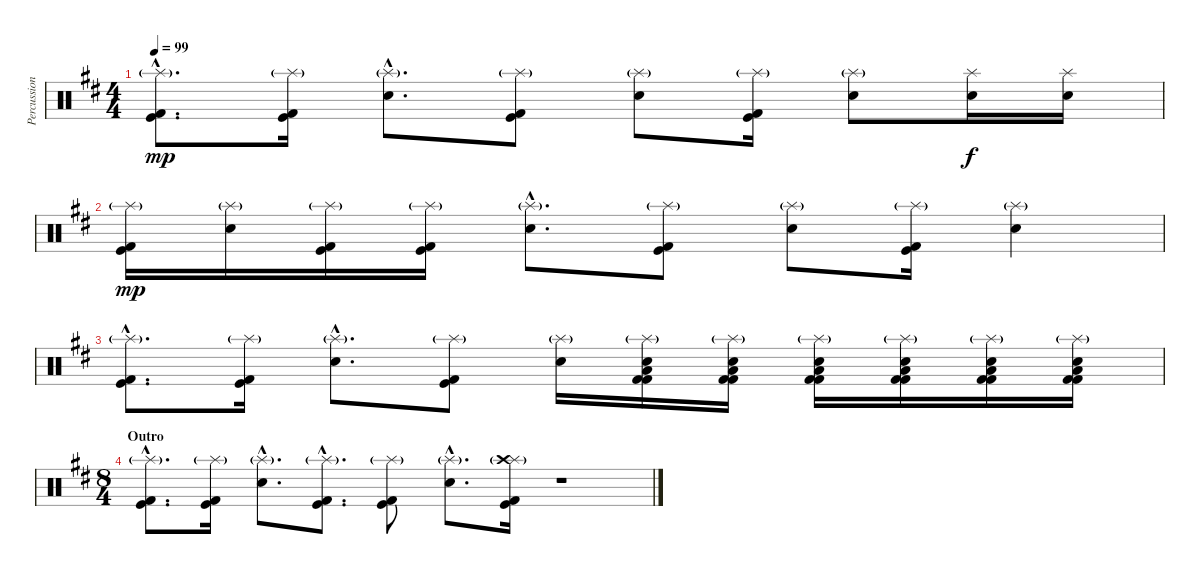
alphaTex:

\track ("Percussion" "Percussion") {instrument percussion}
\staff {score}
\articulation defaults
\ts (4 4)
\tempo 99
\clef neutral
\ks d
("Splash (hit)"{g hac} "Kick (hit)"{hac} "Kick (hit) 2"{hac}).8{d dy mp} ("Splash (hit)"{g} "Kick (hit)" "Kick (hit) 2").16 ("Splash (hit)"{g hac} "Electric Snare (hit)"{hac}).8{d} ("Splash (hit)"{g} "Kick (hit)" "Kick (hit) 2").8 ("Splash (hit)"{g} "Electric Snare (hit)").8 ("Splash (hit)"{g} "Kick (hit)" "Kick (hit) 2").16 ("Splash (hit)"{g} "Electric Snare (hit)").8 ("Splash (hit)" "Electric Snare (hit)").16{dy f} ("Splash (hit)" "Electric Snare (hit)").16 |
("Splash (hit)"{g} "Kick (hit)" "Kick (hit) 2").16{dy mp} ("Splash (hit)"{g} "Electric Snare (hit)").16 ("Splash (hit)"{g} "Kick (hit)" "Kick (hit) 2").16 ("Splash (hit)"{g} "Kick (hit)" "Kick (hit) 2").16 ("Splash (hit)"{g hac} "Electric Snare (hit)"{hac}).8{d} ("Splash (hit)"{g} "Kick (hit)" "Kick (hit) 2").8 ("Splash (hit)"{g} "Electric Snare (hit)").8 ("Splash (hit)"{g} "Kick (hit)" "Kick (hit) 2").16 ("Splash (hit)"{g} "Electric Snare (hit)").4 |
("Splash (hit)"{g hac} "Kick (hit)"{hac} "Kick (hit) 2"{hac}).8{d} ("Splash (hit)"{g} "Kick (hit)" "Kick (hit) 2").16 ("Splash (hit)"{g hac} "Electric Snare (hit)"{hac}).8{d} ("Splash (hit)"{g} "Kick (hit)" "Kick (hit) 2").8 ("Splash (hit)"{g} "Electric Snare (hit)").16 ("Splash (hit)"{g} "Electric Snare (hit)" "Kick (hit) 2" "Kick (hit) 2" "Low Tom (hit)").16 ("Splash (hit)"{g} "Electric Snare (hit)" "Kick (hit) 2" "Kick (hit) 2" "Low Tom (hit)").16 ("Splash (hit)"{g} "Electric Snare (hit)" "Kick (hit) 2" "Kick (hit) 2" "Low Tom (hit)").16 ("Splash (hit)"{g} "Electric Snare (hit)" "Kick (hit) 2" "Kick (hit) 2" "Low Tom (hit)").16 ("Splash (hit)"{g} "Electric Snare (hit)" "Kick (hit) 2" "Kick (hit) 2" "Low Tom (hit)").16 ("Splash (hit)"{g} "Electric Snare (hit)" "Kick (hit) 2" "Kick (hit) 2" "Low Tom (hit)").16 |
\ts (8 4)
\section ("" "Outro")
("Splash (hit)"{g hac} "Kick (hit)"{hac} "Kick (hit) 2"{hac}).8{d} ("Splash (hit)"{g} "Kick (hit)" "Kick (hit) 2").16 ("Splash (hit)"{g hac} "Electric Snare (hit)"{hac}).8{d} ("Splash (hit)"{g hac} "Kick (hit)"{hac} "Kick (hit) 2"{hac}).8{d} ("Splash (hit)"{g} "Kick (hit)" "Kick (hit) 2").8 ("Splash (hit)"{g hac} "Electric Snare (hit)"{hac}).8{d} ("Splash (hit)"{g} "Crash high (hit)"{g} "Kick (hit)" "Kick (hit) 2").16 r.1
